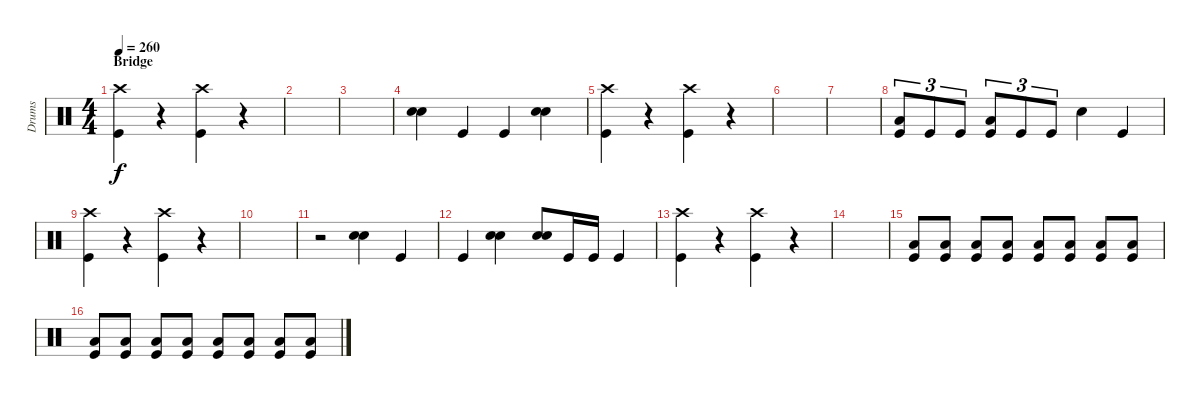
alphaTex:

\track ("Drums" "Drums") {instrument percussion}
\staff {score}
\articulation defaults
\ts (4 4)
\section ("" "Bridge")
\tempo 260
\clef neutral
\ks c
("Kick (hit)" "Crash high (hit)").4{dy f} r.4 ("Kick (hit)" "Crash high (hit)").4 r.4 |
|
|
("Snare (hit) 2" "Snare (hit) 2").4 "Kick (hit)".4 "Kick (hit)".4 ("Snare (hit) 2" "Snare (hit) 2").4 |
("Kick (hit)" "Crash high (hit)").4 r.4 ("Kick (hit)" "Crash high (hit)").4 r.4 |
|
|
("Kick (hit)" "Low Floor Tom (hit)").8{tu (3 2)} "Kick (hit)".8{tu (3 2)} "Kick (hit)".8{tu (3 2)} ("Kick (hit)" "Low Floor Tom (hit)").8{tu (3 2)} "Kick (hit)".8{tu (3 2)} "Kick (hit)".8{tu (3 2)} "Snare (hit) 2".4 "Kick (hit)".4 |
("Kick (hit)" "Crash high (hit)").4 r.4 ("Kick (hit)" "Crash high (hit)").4 r.4 |
|
r.2 ("Snare (hit) 2" "Snare (hit) 2").4 "Kick (hit)".4 |
"Kick (hit)".4 ("Snare (hit) 2" "Snare (hit) 2").4 ("Snare (hit) 2" "Snare (hit) 2").8 "Kick (hit)".16 "Kick (hit)".16 "Kick (hit)".4 |
("Kick (hit)" "Crash high (hit)").4 r.4 ("Kick (hit)" "Crash high (hit)").4 r.4 |
|
("Kick (hit)" "Low Floor Tom (hit)").8 ("Kick (hit)" "Low Floor Tom (hit)").8 ("Kick (hit)" "Low Floor Tom (hit)").8 ("Kick (hit)" "Low Floor Tom (hit)").8 ("Kick (hit)" "Low Floor Tom (hit)").8 ("Kick (hit)" "Low Floor Tom (hit)").8 ("Kick (hit)" "Low Floor Tom (hit)").8 ("Kick (hit)" "Low Floor Tom (hit)").8 |
("Kick (hit)" "Low Floor Tom (hit)").8 ("Kick (hit)" "Low Floor Tom (hit)").8 ("Kick (hit)" "Low Floor Tom (hit)").8 ("Kick (hit)" "Low Floor Tom (hit)").8 ("Kick (hit)" "Low Floor Tom (hit)").8 ("Kick (hit)" "Low Floor Tom (hit)").8 ("Kick (hit)" "Low Floor Tom (hit)").8 ("Kick (hit)" "Low Floor Tom (hit)").8
